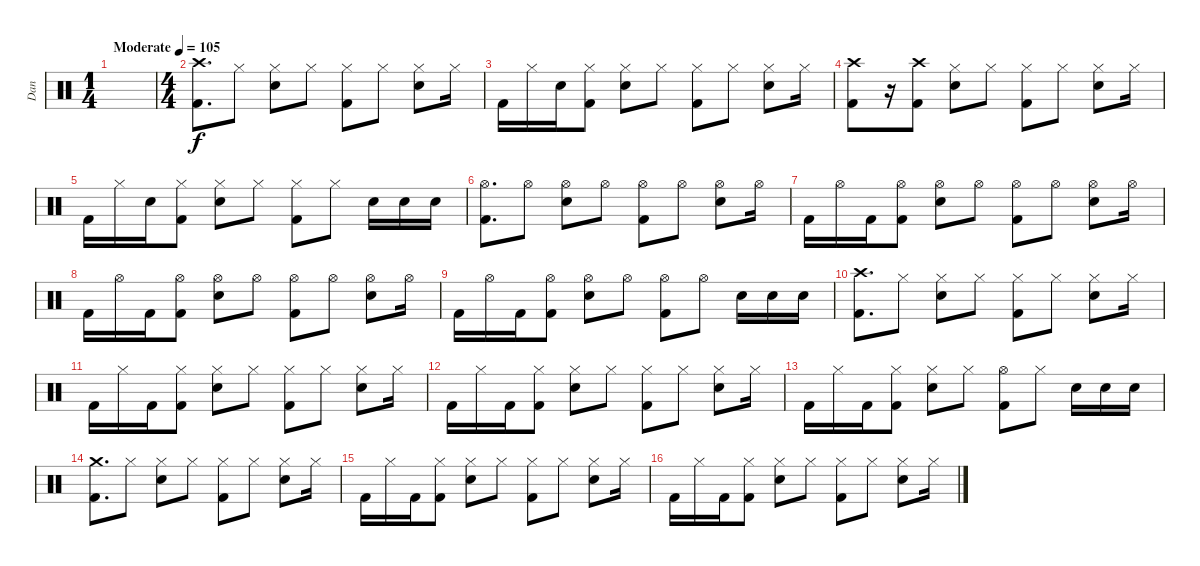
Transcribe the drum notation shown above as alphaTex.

\track ("Dan" "Dan") {instrument percussion}
\staff {score}
\articulation defaults
\ts (1 4)
\tempo (105 "Moderate")
\clef neutral
\ks c
|
\ts (4 4)
("Crash high (hit)" "Kick (hit) 2").8{d volume 7 balance 8} "Hi-Hat (closed)".8 ("Hi-Hat (closed)" "Snare (hit) 2").8 "Hi-Hat (closed)".8 ("Hi-Hat (closed)" "Kick (hit) 2").8 "Hi-Hat (closed)".8 ("Hi-Hat (closed)" "Snare (hit) 2").8 "Hi-Hat (closed)".16 |
"Kick (hit) 2".16 "Hi-Hat (closed)".16 "Snare (hit) 2".16 ("Hi-Hat (closed)" "Kick (hit) 2").8 ("Hi-Hat (closed)" "Snare (hit) 2").8 "Hi-Hat (closed)".8 ("Hi-Hat (closed)" "Kick (hit) 2").8 "Hi-Hat (closed)".8 ("Hi-Hat (closed)" "Snare (hit) 2").8 "Hi-Hat (closed)".16 |
("Crash high (hit)" "Kick (hit) 2").8 r.16 ("Crash high (hit)" "Kick (hit) 2").8 ("Hi-Hat (closed)" "Snare (hit) 2").8 "Hi-Hat (closed)".8 ("Hi-Hat (closed)" "Kick (hit) 2").8 "Hi-Hat (closed)".8 ("Hi-Hat (closed)" "Snare (hit) 2").8 "Hi-Hat (closed)".16 |
"Kick (hit) 2".16 "Hi-Hat (closed)".16 "Snare (hit) 2".16 ("Hi-Hat (closed)" "Kick (hit) 2").8 ("Hi-Hat (closed)" "Snare (hit) 2").8 "Hi-Hat (closed)".8 ("Hi-Hat (closed)" "Kick (hit) 2").8 "Hi-Hat (closed)".8 "Snare (hit) 2".16{volume 13 balance 8} "Snare (hit) 2".16 "Snare (hit) 2".16 |
("Hi-Hat (open)" "Kick (hit) 2").8{d} "Hi-Hat (open)".8 ("Hi-Hat (open)" "Snare (hit) 2").8 "Hi-Hat (open)".8 ("Hi-Hat (open)" "Kick (hit) 2").8 "Hi-Hat (open)".8 ("Hi-Hat (open)" "Snare (hit) 2").8 "Hi-Hat (open)".16 |
"Kick (hit) 2".16 "Hi-Hat (open)".16 "Kick (hit) 2".16 ("Hi-Hat (open)" "Kick (hit) 2").8 ("Hi-Hat (open)" "Snare (hit) 2").8 "Hi-Hat (open)".8 ("Hi-Hat (open)" "Kick (hit) 2").8 "Hi-Hat (open)".8 ("Hi-Hat (open)" "Snare (hit) 2").8 "Hi-Hat (open)".16 |
"Kick (hit) 2".16 "Hi-Hat (open)".16 "Kick (hit) 2".16 ("Hi-Hat (open)" "Kick (hit) 2").8 ("Hi-Hat (open)" "Snare (hit) 2").8 "Hi-Hat (open)".8 ("Hi-Hat (open)" "Kick (hit) 2").8 "Hi-Hat (open)".8 ("Hi-Hat (open)" "Snare (hit) 2").8 "Hi-Hat (open)".16 |
"Kick (hit) 2".16 "Hi-Hat (open)".16 "Kick (hit) 2".16 ("Hi-Hat (open)" "Kick (hit) 2").8 ("Hi-Hat (open)" "Snare (hit) 2").8 "Hi-Hat (open)".8 ("Hi-Hat (open)" "Kick (hit) 2").8 "Hi-Hat (open)".8 "Snare (hit) 2".16 "Snare (hit) 2".16 "Snare (hit) 2".16 |
("Crash high (hit)" "Kick (hit) 2").8{d} "Hi-Hat (closed)".8 ("Hi-Hat (closed)" "Snare (hit) 2").8 "Hi-Hat (closed)".8 ("Hi-Hat (closed)" "Kick (hit) 2").8 "Hi-Hat (closed)".8 ("Hi-Hat (closed)" "Snare (hit) 2").8 "Hi-Hat (closed)".16 |
"Kick (hit) 2".16 "Hi-Hat (closed)".16 "Kick (hit) 2".16 ("Hi-Hat (closed)" "Kick (hit) 2").8 ("Hi-Hat (closed)" "Snare (hit) 2").8 "Hi-Hat (closed)".8 ("Hi-Hat (closed)" "Kick (hit) 2").8 "Hi-Hat (closed)".8 ("Hi-Hat (closed)" "Snare (hit) 2").8 "Hi-Hat (closed)".16 |
"Kick (hit) 2".16 "Hi-Hat (closed)".16 "Kick (hit) 2".16 ("Hi-Hat (closed)" "Kick (hit) 2").8 ("Hi-Hat (closed)" "Snare (hit) 2").8 "Hi-Hat (closed)".8 ("Hi-Hat (closed)" "Kick (hit) 2").8 "Hi-Hat (closed)".8 ("Hi-Hat (closed)" "Snare (hit) 2").8 "Hi-Hat (closed)".16 |
"Kick (hit) 2".16 "Hi-Hat (closed)".16 "Kick (hit) 2".16 ("Hi-Hat (closed)" "Kick (hit) 2").8 ("Hi-Hat (closed)" "Snare (hit) 2").8 "Hi-Hat (closed)".8 ("Hi-Hat (open)" "Kick (hit) 2").8 "Hi-Hat (closed)".8 "Snare (hit) 2".16 "Snare (hit) 2".16 "Snare (hit) 2".16 |
("Crash medium (hit)" "Kick (hit) 2").8{d} "Hi-Hat (closed)".8 ("Hi-Hat (closed)" "Snare (hit) 2").8 "Hi-Hat (closed)".8 ("Hi-Hat (closed)" "Kick (hit) 2").8 "Hi-Hat (closed)".8 ("Hi-Hat (closed)" "Snare (hit) 2").8 "Hi-Hat (closed)".16 |
"Kick (hit) 2".16 "Hi-Hat (closed)".16 "Kick (hit) 2".16 ("Hi-Hat (closed)" "Kick (hit) 2").8 ("Hi-Hat (closed)" "Snare (hit) 2").8 "Hi-Hat (closed)".8 ("Hi-Hat (closed)" "Kick (hit) 2").8 "Hi-Hat (closed)".8 ("Hi-Hat (closed)" "Snare (hit) 2").8 "Hi-Hat (closed)".16 |
"Kick (hit) 2".16 "Hi-Hat (closed)".16 "Kick (hit) 2".16 ("Hi-Hat (closed)" "Kick (hit) 2").8 ("Hi-Hat (closed)" "Snare (hit) 2").8 "Hi-Hat (closed)".8 ("Hi-Hat (closed)" "Kick (hit) 2").8 "Hi-Hat (closed)".8 ("Hi-Hat (closed)" "Snare (hit) 2").8 "Hi-Hat (closed)".16
